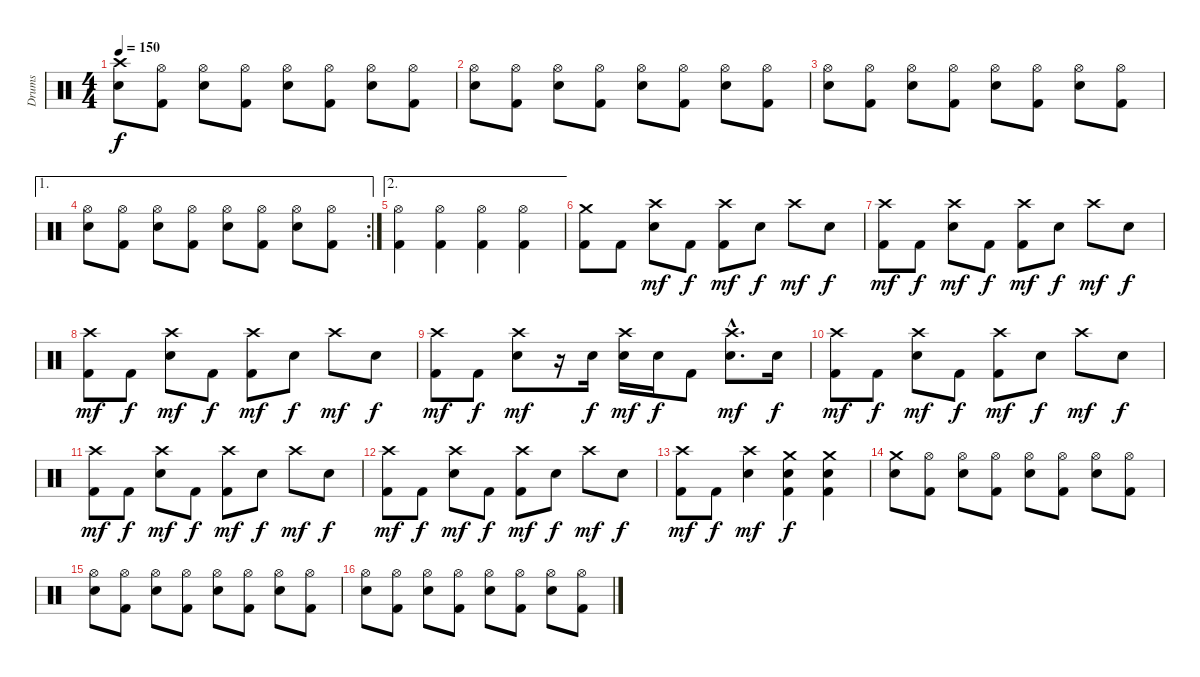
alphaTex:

\track ("Drums" "Drums") {instrument percussion}
\staff {score}
\articulation defaults
\ts (4 4)
\tempo 150
\clef neutral
\ks c
("Electric Snare (hit)" "Crash high (hit)").8{dy f} ("Kick (hit) 2" "Hi-Hat (open)").8 ("Electric Snare (hit)" "Hi-Hat (open)").8 ("Kick (hit) 2" "Hi-Hat (open)").8 ("Electric Snare (hit)" "Hi-Hat (open)").8 ("Kick (hit) 2" "Hi-Hat (open)").8 ("Electric Snare (hit)" "Hi-Hat (open)").8 ("Kick (hit) 2" "Hi-Hat (open)").8 |
("Electric Snare (hit)" "Hi-Hat (open)").8 ("Kick (hit) 2" "Hi-Hat (open)").8 ("Electric Snare (hit)" "Hi-Hat (open)").8 ("Kick (hit) 2" "Hi-Hat (open)").8 ("Electric Snare (hit)" "Hi-Hat (open)").8 ("Kick (hit) 2" "Hi-Hat (open)").8 ("Electric Snare (hit)" "Hi-Hat (open)").8 ("Kick (hit) 2" "Hi-Hat (open)").8 |
("Electric Snare (hit)" "Hi-Hat (open)").8 ("Kick (hit) 2" "Hi-Hat (open)").8 ("Electric Snare (hit)" "Hi-Hat (open)").8 ("Kick (hit) 2" "Hi-Hat (open)").8 ("Electric Snare (hit)" "Hi-Hat (open)").8 ("Kick (hit) 2" "Hi-Hat (open)").8 ("Electric Snare (hit)" "Hi-Hat (open)").8 ("Kick (hit) 2" "Hi-Hat (open)").8 |
\ae 1
\rc 2
("Electric Snare (hit)" "Hi-Hat (open)").8 ("Kick (hit) 2" "Hi-Hat (open)").8 ("Electric Snare (hit)" "Hi-Hat (open)").8 ("Kick (hit) 2" "Hi-Hat (open)").8 ("Electric Snare (hit)" "Hi-Hat (open)").8 ("Kick (hit) 2" "Hi-Hat (open)").8 ("Electric Snare (hit)" "Hi-Hat (open)").8 ("Kick (hit) 2" "Hi-Hat (open)").8 |
\ae 2
("Kick (hit) 2" "Hi-Hat (open)").4 ("Kick (hit) 2" "Hi-Hat (open)").4 ("Kick (hit) 2" "Hi-Hat (open)").4 ("Kick (hit) 2" "Hi-Hat (open)").4 |
("Kick (hit) 2" "Crash medium (hit)").8 "Kick (hit) 2".8 ("Electric Snare (hit)" "Crash high (hit)").8{dy mf} "Kick (hit) 2".8{dy f} ("Kick (hit) 2" "Crash high (hit)").8{dy mf} "Electric Snare (hit)".8{dy f} "Crash high (hit)".8{dy mf} "Electric Snare (hit)".8{dy f} |
("Kick (hit) 2" "Crash high (hit)").8{dy mf} "Kick (hit) 2".8{dy f} ("Electric Snare (hit)" "Crash high (hit)").8{dy mf} "Kick (hit) 2".8{dy f} ("Kick (hit) 2" "Crash high (hit)").8{dy mf} "Electric Snare (hit)".8{dy f} "Crash high (hit)".8{dy mf} "Electric Snare (hit)".8{dy f} |
("Kick (hit) 2" "Crash high (hit)").8{dy mf} "Kick (hit) 2".8{dy f} ("Electric Snare (hit)" "Crash high (hit)").8{dy mf} "Kick (hit) 2".8{dy f} ("Kick (hit) 2" "Crash high (hit)").8{dy mf} "Electric Snare (hit)".8{dy f} "Crash high (hit)".8{dy mf} "Electric Snare (hit)".8{dy f} |
("Kick (hit) 2" "Crash high (hit)").8{dy mf} "Kick (hit) 2".8{dy f} ("Electric Snare (hit)" "Crash high (hit)").8{dy mf} r.16 "Electric Snare (hit)".16{dy f} ("Electric Snare (hit)" "Crash high (hit)").16{dy mf} "Electric Snare (hit)".16{dy f} "Kick (hit) 2".8 ("Electric Snare (hit)"{hac} "Crash high (hit)"{hac}).8{d dy mf} "Electric Snare (hit)".16{dy f} |
("Kick (hit) 2" "Crash high (hit)").8{dy mf} "Kick (hit) 2".8{dy f} ("Electric Snare (hit)" "Crash high (hit)").8{dy mf} "Kick (hit) 2".8{dy f} ("Kick (hit) 2" "Crash high (hit)").8{dy mf} "Electric Snare (hit)".8{dy f} "Crash high (hit)".8{dy mf} "Electric Snare (hit)".8{dy f} |
("Kick (hit) 2" "Crash high (hit)").8{dy mf} "Kick (hit) 2".8{dy f} ("Electric Snare (hit)" "Crash high (hit)").8{dy mf} "Kick (hit) 2".8{dy f} ("Kick (hit) 2" "Crash high (hit)").8{dy mf} "Electric Snare (hit)".8{dy f} "Crash high (hit)".8{dy mf} "Electric Snare (hit)".8{dy f} |
("Kick (hit) 2" "Crash high (hit)").8{dy mf} "Kick (hit) 2".8{dy f} ("Electric Snare (hit)" "Crash high (hit)").8{dy mf} "Kick (hit) 2".8{dy f} ("Kick (hit) 2" "Crash high (hit)").8{dy mf} "Electric Snare (hit)".8{dy f} "Crash high (hit)".8{dy mf} "Electric Snare (hit)".8{dy f} |
("Kick (hit) 2" "Crash high (hit)").8{dy mf} "Kick (hit) 2".8{dy f} ("Electric Snare (hit)" "Crash high (hit)").4{dy mf} ("Kick (hit) 2" "Electric Snare (hit)" "Crash medium (hit)").4{dy f} ("Kick (hit) 2" "Electric Snare (hit)" "Crash medium (hit)").4 |
("Electric Snare (hit)" "Crash medium (hit)").8 ("Kick (hit) 2" "Hi-Hat (open)").8 ("Electric Snare (hit)" "Hi-Hat (open)").8 ("Kick (hit) 2" "Hi-Hat (open)").8 ("Electric Snare (hit)" "Hi-Hat (open)").8 ("Kick (hit) 2" "Hi-Hat (open)").8 ("Electric Snare (hit)" "Hi-Hat (open)").8 ("Kick (hit) 2" "Hi-Hat (open)").8 |
("Electric Snare (hit)" "Hi-Hat (open)").8 ("Kick (hit) 2" "Hi-Hat (open)").8 ("Electric Snare (hit)" "Hi-Hat (open)").8 ("Kick (hit) 2" "Hi-Hat (open)").8 ("Electric Snare (hit)" "Hi-Hat (open)").8 ("Kick (hit) 2" "Hi-Hat (open)").8 ("Electric Snare (hit)" "Hi-Hat (open)").8 ("Kick (hit) 2" "Hi-Hat (open)").8 |
("Electric Snare (hit)" "Hi-Hat (open)").8 ("Kick (hit) 2" "Hi-Hat (open)").8 ("Electric Snare (hit)" "Hi-Hat (open)").8 ("Kick (hit) 2" "Hi-Hat (open)").8 ("Electric Snare (hit)" "Hi-Hat (open)").8 ("Kick (hit) 2" "Hi-Hat (open)").8 ("Electric Snare (hit)" "Hi-Hat (open)").8 ("Kick (hit) 2" "Hi-Hat (open)").8
